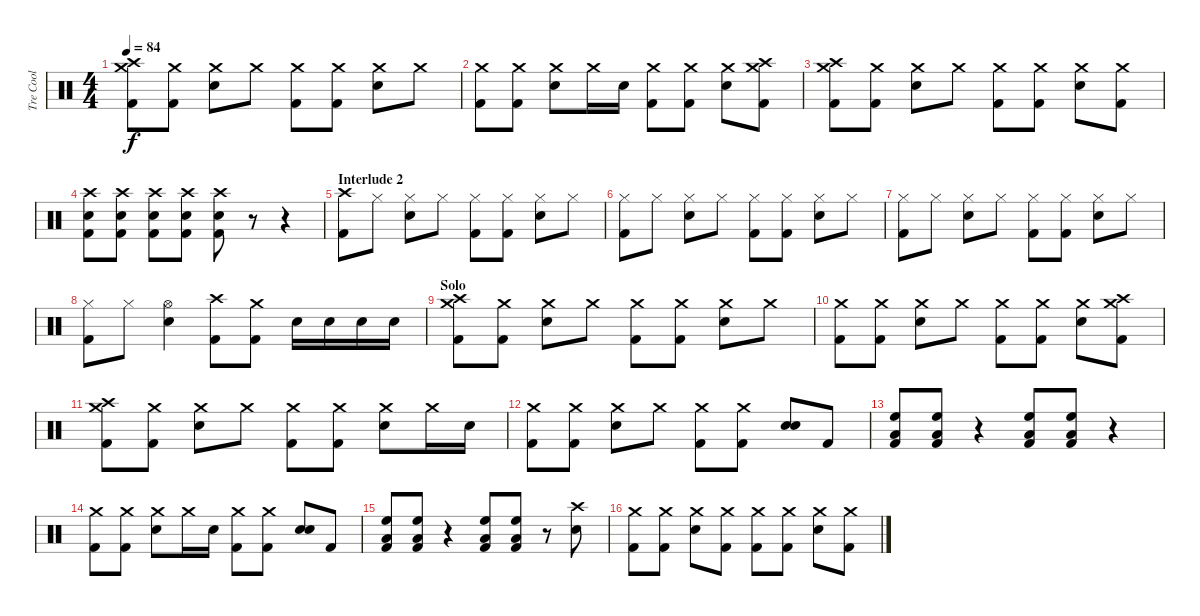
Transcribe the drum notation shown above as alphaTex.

\track ("Tre Cool" "Tre Cool") {instrument percussion}
\staff {score}
\articulation defaults
\ts (4 4)
\tempo 84
\clef neutral
\ks c
("Crash medium (hit)" "Crash high (hit)" "Kick (hit) 2").8{dy f} ("Crash medium (hit)" "Kick (hit) 2").8 ("Crash medium (hit)" "Snare (hit) 2").8 "Crash medium (hit)".8 ("Crash medium (hit)" "Kick (hit) 2").8 ("Crash medium (hit)" "Kick (hit) 2").8 ("Crash medium (hit)" "Snare (hit) 2").8 "Crash medium (hit)".8 |
("Crash medium (hit)" "Kick (hit) 2").8 ("Crash medium (hit)" "Kick (hit) 2").8 ("Crash medium (hit)" "Snare (hit) 2").8 "Crash medium (hit)".16 "Snare (hit) 2".16 ("Crash medium (hit)" "Kick (hit) 2").8 ("Crash medium (hit)" "Kick (hit) 2").8 ("Crash medium (hit)" "Snare (hit) 2").8 ("Crash medium (hit)" "Crash high (hit)" "Kick (hit) 2").8 |
("Crash medium (hit)" "Crash high (hit)" "Kick (hit) 2").8 ("Crash medium (hit)" "Kick (hit) 2").8 ("Crash medium (hit)" "Snare (hit) 2").8 "Crash medium (hit)".8 ("Crash medium (hit)" "Kick (hit) 2").8 ("Crash medium (hit)" "Kick (hit) 2").8 ("Crash medium (hit)" "Snare (hit) 2").8 ("Crash medium (hit)" "Kick (hit) 2").8 |
("Crash high (hit)" "Snare (hit) 2" "Kick (hit) 2").8 ("Crash high (hit)" "Snare (hit) 2" "Kick (hit) 2").8 ("Crash high (hit)" "Snare (hit) 2" "Kick (hit) 2").8 ("Crash high (hit)" "Snare (hit) 2" "Kick (hit) 2").8 ("Crash high (hit)" "Snare (hit) 2" "Kick (hit) 2").8 r.8 r.4 |
\section ("" "Interlude 2")
("Crash high (hit)" "Kick (hit) 2").8 "Hi-Hat (closed)".8 ("Hi-Hat (closed)" "Snare (hit) 2").8 "Hi-Hat (closed)".8 ("Hi-Hat (closed)" "Kick (hit) 2").8 ("Hi-Hat (closed)" "Kick (hit) 2").8 ("Hi-Hat (closed)" "Snare (hit) 2").8 "Hi-Hat (closed)".8 |
("Hi-Hat (closed)" "Kick (hit) 2").8 "Hi-Hat (closed)".8 ("Hi-Hat (closed)" "Snare (hit) 2").8 "Hi-Hat (closed)".8 ("Hi-Hat (closed)" "Kick (hit) 2").8 ("Hi-Hat (closed)" "Kick (hit) 2").8 ("Hi-Hat (closed)" "Snare (hit) 2").8 "Hi-Hat (closed)".8 |
("Hi-Hat (closed)" "Kick (hit) 2").8 "Hi-Hat (closed)".8 ("Hi-Hat (closed)" "Snare (hit) 2").8 "Hi-Hat (closed)".8 ("Hi-Hat (closed)" "Kick (hit) 2").8 ("Hi-Hat (closed)" "Kick (hit) 2").8 ("Hi-Hat (closed)" "Snare (hit) 2").8 "Hi-Hat (closed)".8 |
("Hi-Hat (closed)" "Kick (hit) 2").8 "Hi-Hat (closed)".8 ("Hi-Hat (open)" "Snare (hit) 2").4 ("Crash high (hit)" "Kick (hit) 2").8 ("Crash medium (hit)" "Kick (hit) 2").8 "Snare (hit) 2".16 "Snare (hit) 2".16 "Snare (hit) 2".16 "Snare (hit) 2".16 |
\section ("" "Solo")
("Crash medium (hit)" "Crash high (hit)" "Kick (hit) 2").8 ("Crash medium (hit)" "Kick (hit) 2").8 ("Crash medium (hit)" "Snare (hit) 2").8 "Crash medium (hit)".8 ("Crash medium (hit)" "Kick (hit) 2").8 ("Crash medium (hit)" "Kick (hit) 2").8 ("Crash medium (hit)" "Snare (hit) 2").8 "Crash medium (hit)".8 |
("Crash medium (hit)" "Kick (hit) 2").8 ("Crash medium (hit)" "Kick (hit) 2").8 ("Crash medium (hit)" "Snare (hit) 2").8 "Crash medium (hit)".8 ("Crash medium (hit)" "Kick (hit) 2").8 ("Crash medium (hit)" "Kick (hit) 2").8 ("Crash medium (hit)" "Snare (hit) 2").8 ("Crash medium (hit)" "Crash high (hit)" "Kick (hit) 2").8 |
("Crash medium (hit)" "Crash high (hit)" "Kick (hit) 2").8 ("Crash medium (hit)" "Kick (hit) 2").8 ("Crash medium (hit)" "Snare (hit) 2").8 "Crash medium (hit)".8 ("Crash medium (hit)" "Kick (hit) 2").8 ("Crash medium (hit)" "Kick (hit) 2").8 ("Crash medium (hit)" "Snare (hit) 2").8 "Crash medium (hit)".16 "Snare (hit) 2".16 |
("Crash medium (hit)" "Kick (hit) 2").8 ("Crash medium (hit)" "Kick (hit) 2").8 ("Crash medium (hit)" "Snare (hit) 2").8 "Crash medium (hit)".8 ("Crash medium (hit)" "Kick (hit) 2").8 ("Crash medium (hit)" "Kick (hit) 2").8 ("Snare (hit) 2" "Snare (hit) 2").8{bu 480} "Kick (hit) 2".8 |
("High Floor Tom (hit)" "Low Tom (hit)" "Kick (hit) 2").8 ("High Floor Tom (hit)" "Low Tom (hit)" "Kick (hit) 2").8 r.4 ("High Floor Tom (hit)" "Low Tom (hit)" "Kick (hit) 2").8 ("High Floor Tom (hit)" "Low Tom (hit)" "Kick (hit) 2").8 r.4 |
("Crash medium (hit)" "Kick (hit) 2").8 ("Crash medium (hit)" "Kick (hit) 2").8 ("Crash medium (hit)" "Snare (hit) 2").8 "Crash medium (hit)".16 "Snare (hit) 2".16 ("Crash medium (hit)" "Kick (hit) 2").8 ("Crash medium (hit)" "Kick (hit) 2").8 ("Snare (hit) 2" "Snare (hit) 2").8{bu 480} "Kick (hit) 2".8 |
("High Floor Tom (hit)" "Low Tom (hit)" "Kick (hit) 2").8 ("High Floor Tom (hit)" "Low Tom (hit)" "Kick (hit) 2").8 r.4 ("High Floor Tom (hit)" "Low Tom (hit)" "Kick (hit) 2").8 ("High Floor Tom (hit)" "Low Tom (hit)" "Kick (hit) 2").8 r.8 ("Crash high (hit)" "Snare (hit) 2").8 |
("Crash medium (hit)" "Kick (hit) 2").8 ("Crash medium (hit)" "Kick (hit) 2").8 ("Crash medium (hit)" "Snare (hit) 2").8 ("Crash medium (hit)" "Kick (hit) 2").8 ("Crash medium (hit)" "Kick (hit) 2").8 ("Crash medium (hit)" "Kick (hit) 2").8 ("Crash medium (hit)" "Snare (hit) 2").8 ("Crash medium (hit)" "Kick (hit) 2").8
